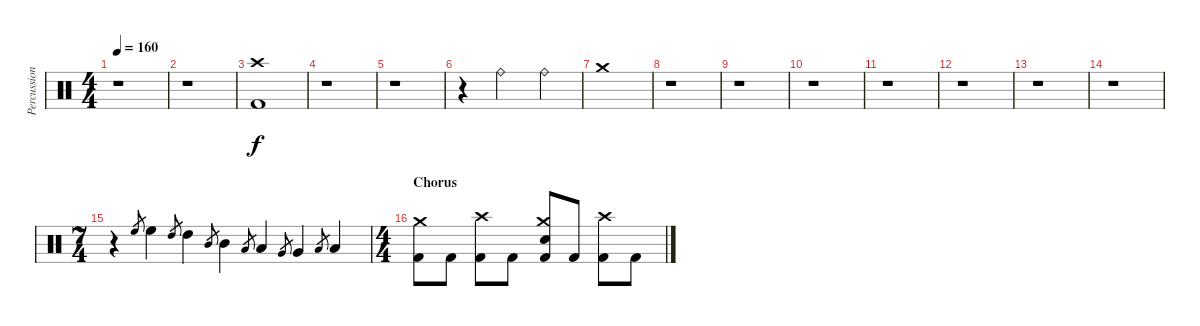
\track ("Percussion" "Percussion") {instrument percussion}
\staff {score}
\articulation defaults
\ts (4 4)
\tempo 160
\clef neutral
\ks c
r.1{dy f} |
r.1 |
("Crash high (hit)" "Kick (hit) 2").1 |
r.1 |
r.1 |
r.4 "Ride (bell)".2 "Ride (bell)".4 |
"Crash medium (hit)".1 |
r.1 |
r.1 |
r.1 |
r.1 |
r.1 |
r.1 |
r.1 |
\ts (7 4)
r.4 "High Floor Tom (hit)".8{gr} "High Floor Tom (hit)".4 "High Tom (hit)".8{gr} "High Tom (hit)".4 "Mid Tom (hit)".8{gr} "Mid Tom (hit)".4 "Low Tom (hit)".8{gr} "Low Tom (hit)".4 "Very Low Tom (hit)".8{gr} "Very Low Tom (hit)".4 "Low Floor Tom (hit)".8{gr} "Low Floor Tom (hit)".4 |
\ts (4 4)
\section ("" "Chorus")
("Crash medium (hit)" "Kick (hit) 2").8 "Kick (hit) 2".8 ("Crash high (hit)" "Kick (hit) 2").8 "Kick (hit) 2".8 ("Crash medium (hit)" "Electric Snare (hit)" "Kick (hit) 2").8 "Kick (hit) 2".8 ("Crash high (hit)" "Kick (hit) 2").8 "Kick (hit) 2".8
